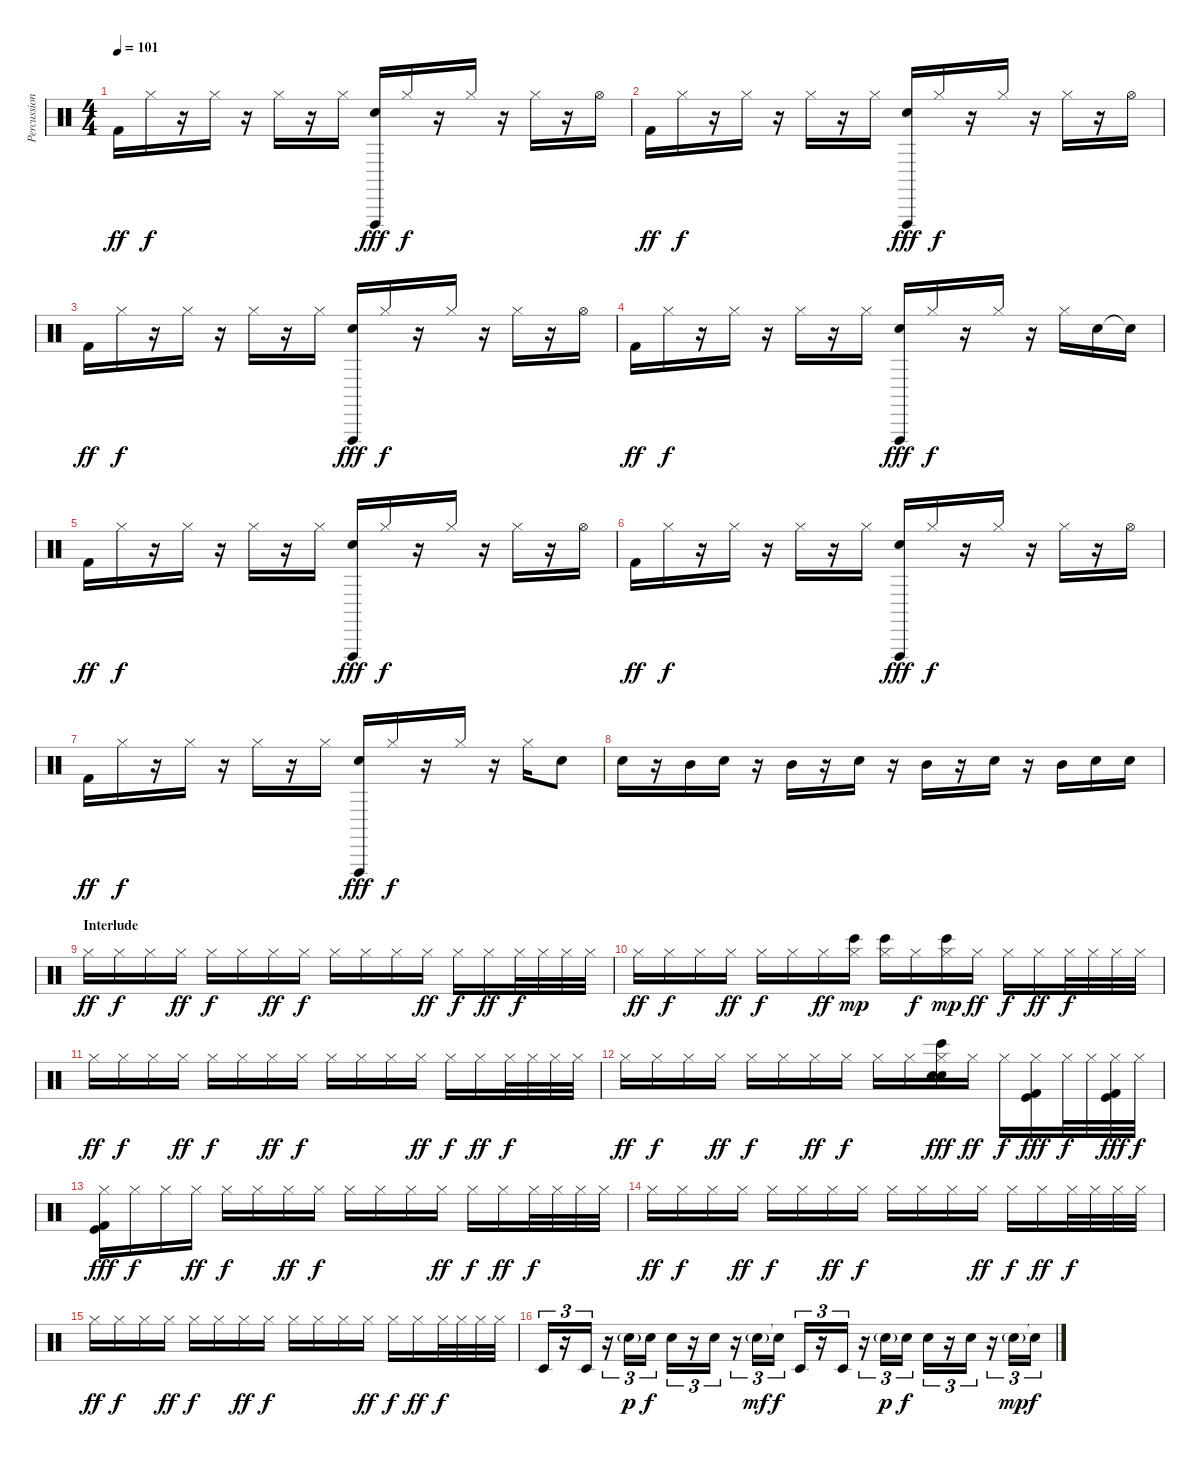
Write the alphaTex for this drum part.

\track ("Percussion" "Percussion") {instrument percussion}
\staff {score}
\articulation defaults
\ts (4 4)
\tempo 101
\clef neutral
\ks c "Kick (hit) 2".16{dy ff} "Hi-Hat (closed)".16{dy f}
r.16 "Hi-Hat (closed)".16 r.16 "Hi-Hat (closed)".16 r.16 "Hi-Hat (closed)".16 ("Vibraslap (hit)" "Electric Snare (hit)").16{dy fff} "Hi-Hat (closed)".16{dy f} r.16 "Hi-Hat (closed)".16 r.16 "Hi-Hat (closed)".16 r.16 "Hi-Hat (open)".16 |
"Kick (hit) 2".16{dy ff} "Hi-Hat (closed)".16{dy f} r.16 "Hi-Hat (closed)".16 r.16 "Hi-Hat (closed)".16 r.16 "Hi-Hat (closed)".16 ("Vibraslap (hit)" "Electric Snare (hit)").16{dy fff} "Hi-Hat (closed)".16{dy f} r.16 "Hi-Hat (closed)".16 r.16 "Hi-Hat (closed)".16 r.16 "Hi-Hat (open)".16 |
"Kick (hit) 2".16{dy ff} "Hi-Hat (closed)".16{dy f} r.16 "Hi-Hat (closed)".16 r.16 "Hi-Hat (closed)".16 r.16 "Hi-Hat (closed)".16 ("Vibraslap (hit)" "Electric Snare (hit)").16{dy fff} "Hi-Hat (closed)".16{dy f} r.16 "Hi-Hat (closed)".16 r.16 "Hi-Hat (closed)".16 r.16 "Hi-Hat (open)".16 |
"Kick (hit) 2".16{dy ff} "Hi-Hat (closed)".16{dy f} r.16 "Hi-Hat (closed)".16 r.16 "Hi-Hat (closed)".16 r.16 "Hi-Hat (closed)".16 ("Vibraslap (hit)" "Electric Snare (hit)").16{dy fff} "Hi-Hat (closed)".16{dy f} r.16 "Hi-Hat (closed)".16 r.16 "Hi-Hat (closed)".16 "Electric Snare (hit)"{tr (40 64)}.16 "Snare (hit)"{t}.16 |
"Kick (hit) 2".16{dy ff} "Hi-Hat (closed)".16{dy f} r.16 "Hi-Hat (closed)".16 r.16 "Hi-Hat (closed)".16 r.16 "Hi-Hat (closed)".16 ("Vibraslap (hit)" "Electric Snare (hit)").16{dy fff} "Hi-Hat (closed)".16{dy f} r.16 "Hi-Hat (closed)".16 r.16 "Hi-Hat (closed)".16 r.16 "Hi-Hat (open)".16 |
"Kick (hit) 2".16{dy ff} "Hi-Hat (closed)".16{dy f} r.16 "Hi-Hat (closed)".16 r.16 "Hi-Hat (closed)".16 r.16 "Hi-Hat (closed)".16 ("Vibraslap (hit)" "Electric Snare (hit)").16{dy fff} "Hi-Hat (closed)".16{dy f} r.16 "Hi-Hat (closed)".16 r.16 "Hi-Hat (closed)".16 r.16 "Hi-Hat (open)".16 |
"Kick (hit) 2".16{dy ff} "Hi-Hat (closed)".16{dy f} r.16 "Hi-Hat (closed)".16 r.16 "Hi-Hat (closed)".16 r.16 "Hi-Hat (closed)".16 ("Vibraslap (hit)" "Electric Snare (hit)").16{dy fff} "Hi-Hat (closed)".16{dy f} r.16 "Hi-Hat (closed)".16 r.16 "Hi-Hat (closed)".16 "Electric Snare (hit)"{tr (40 64)}.8 |
"Electric Snare (hit)".16 r.16 "Mid Tom (hit)".16 "Electric Snare (hit)".16 r.16 "Mid Tom (hit)".16 r.16 "Electric Snare (hit)".16 r.16 "Mid Tom (hit)".16 r.16 "Electric Snare (hit)".16 r.16 "Mid Tom (hit)".16 "Electric Snare (hit)".16 "Electric Snare (hit)".16 |
\section ("" "Interlude")
"Hi-Hat (closed)".16{dy ff} "Hi-Hat (closed)".16{dy f} "Hi-Hat (closed)".16 "Hi-Hat (closed)".16{dy ff} "Hi-Hat (closed)".16{dy f} "Hi-Hat (closed)".16 "Hi-Hat (closed)".16{dy ff} "Hi-Hat (closed)".16{dy f} "Hi-Hat (closed)".16 "Hi-Hat (closed)".16 "Hi-Hat (closed)".16 "Hi-Hat (closed)".16{dy ff} "Hi-Hat (closed)".16{dy f} "Hi-Hat (closed)".16{dy ff} "Hi-Hat (closed)".32{dy f} "Hi-Hat (closed)".32 "Hi-Hat (closed)".32 "Hi-Hat (closed)".32 |
"Hi-Hat (closed)".16{dy ff} "Hi-Hat (closed)".16{dy f} "Hi-Hat (closed)".16 "Hi-Hat (closed)".16{dy ff} "Hi-Hat (closed)".16{dy f} "Hi-Hat (closed)".16 "Hi-Hat (closed)".16{dy ff} ("Hi-Hat (closed)" "Bongo High (hit)").16{dy mp} ("Hi-Hat (closed)" "Bongo High (hit)").16 "Hi-Hat (closed)".16{dy f} ("Hi-Hat (closed)" "Bongo High (hit)").16{dy mp} "Hi-Hat (closed)".16{dy ff} "Hi-Hat (closed)".16{dy f} "Hi-Hat (closed)".16{dy ff} "Hi-Hat (closed)".32{dy f} "Hi-Hat (closed)".32 "Hi-Hat (closed)".32 "Hi-Hat (closed)".32 |
"Hi-Hat (closed)".16{dy ff} "Hi-Hat (closed)".16{dy f} "Hi-Hat (closed)".16 "Hi-Hat (closed)".16{dy ff} "Hi-Hat (closed)".16{dy f} "Hi-Hat (closed)".16 "Hi-Hat (closed)".16{dy ff} "Hi-Hat (closed)".16{dy f} "Hi-Hat (closed)".16 "Hi-Hat (closed)".16 "Hi-Hat (closed)".16 "Hi-Hat (closed)".16{dy ff} "Hi-Hat (closed)".16{dy f} "Hi-Hat (closed)".16{dy ff} "Hi-Hat (closed)".32{dy f} "Hi-Hat (closed)".32 "Hi-Hat (closed)".32 "Hi-Hat (closed)".32 |
"Hi-Hat (closed)".16{dy ff} "Hi-Hat (closed)".16{dy f} "Hi-Hat (closed)".16 "Hi-Hat (closed)".16{dy ff} "Hi-Hat (closed)".16{dy f} "Hi-Hat (closed)".16 "Hi-Hat (closed)".16{dy ff} "Hi-Hat (closed)".16{dy f} "Hi-Hat (closed)".16 "Hi-Hat (closed)".16 ("Hi-Hat (closed)" "Snare (hit) 2" "Bongo High (hit)" "Electric Snare (hit)").16{dy fff} "Hi-Hat (closed)".16{dy ff} "Hi-Hat (closed)".16{dy f} ("Hi-Hat (closed)" "Kick (hit)" "Kick (hit) 2").16{dy fff} "Hi-Hat (closed)".32{dy f} "Hi-Hat (closed)".32 ("Hi-Hat (closed)" "Kick (hit)" "Kick (hit) 2").32{dy fff} "Hi-Hat (closed)".32{dy f} |
("Hi-Hat (closed)" "Kick (hit)" "Kick (hit) 2").16{dy fff} "Hi-Hat (closed)".16{dy f} "Hi-Hat (closed)".16 "Hi-Hat (closed)".16{dy ff} "Hi-Hat (closed)".16{dy f} "Hi-Hat (closed)".16 "Hi-Hat (closed)".16{dy ff} "Hi-Hat (closed)".16{dy f} "Hi-Hat (closed)".16 "Hi-Hat (closed)".16 "Hi-Hat (closed)".16 "Hi-Hat (closed)".16{dy ff} "Hi-Hat (closed)".16{dy f} "Hi-Hat (closed)".16{dy ff} "Hi-Hat (closed)".32{dy f} "Hi-Hat (closed)".32 "Hi-Hat (closed)".32 "Hi-Hat (closed)".32 |
"Hi-Hat (closed)".16{dy ff} "Hi-Hat (closed)".16{dy f} "Hi-Hat (closed)".16 "Hi-Hat (closed)".16{dy ff} "Hi-Hat (closed)".16{dy f} "Hi-Hat (closed)".16 "Hi-Hat (closed)".16{dy ff} "Hi-Hat (closed)".16{dy f} "Hi-Hat (closed)".16 "Hi-Hat (closed)".16 "Hi-Hat (closed)".16 "Hi-Hat (closed)".16{dy ff} "Hi-Hat (closed)".16{dy f} "Hi-Hat (closed)".16{dy ff} "Hi-Hat (closed)".32{dy f} "Hi-Hat (closed)".32 "Hi-Hat (closed)".32 "Hi-Hat (closed)".32 |
"Hi-Hat (closed)".16{dy ff} "Hi-Hat (closed)".16{dy f} "Hi-Hat (closed)".16 "Hi-Hat (closed)".16{dy ff} "Hi-Hat (closed)".16{dy f} "Hi-Hat (closed)".16 "Hi-Hat (closed)".16{dy ff} "Hi-Hat (closed)".16{dy f} "Hi-Hat (closed)".16 "Hi-Hat (closed)".16 "Hi-Hat (closed)".16 "Hi-Hat (closed)".16{dy ff} "Hi-Hat (closed)".16{dy f} "Hi-Hat (closed)".16{dy ff} "Hi-Hat (closed)".32{dy f} "Hi-Hat (closed)".32 "Hi-Hat (closed)".32 "Hi-Hat (closed)".32 |
"Timbale low (hit)".16{tu (3 2)} r.16{tu (3 2)} "Timbale low (hit)".16{tu (3 2)} r.16{tu (3 2)} "Electric Snare (hit)"{tr (40 32) g}.16{tu (3 2) dy p} "Electric Snare (hit)".16{tu (3 2) dy f} "Electric Snare (hit)".16{tu (3 2)} r.16{tu (3 2)} "Electric Snare (hit)".16{tu (3 2)} r.16{tu (3 2)} "Electric Snare (hit)"{tr (40 32) g}.16{tu (3 2) dy mf} "Electric Snare (hit)"{t}.16{tu (3 2) dy f} "Timbale low (hit)".16{tu (3 2)} r.16{tu (3 2)} "Timbale low (hit)".16{tu (3 2)} r.16{tu (3 2)} "Electric Snare (hit)"{tr (40 32) g}.16{tu (3 2) dy p} "Electric Snare (hit)".16{tu (3 2) dy f} "Electric Snare (hit)".16{tu (3 2)} r.16{tu (3 2)} "Electric Snare (hit)".16{tu (3 2)} r.16{tu (3 2)} "Electric Snare (hit)"{tr (40 32) g}.16{tu (3 2) dy mp} "Electric Snare (hit)"{t}.16{tu (3 2) dy f}
